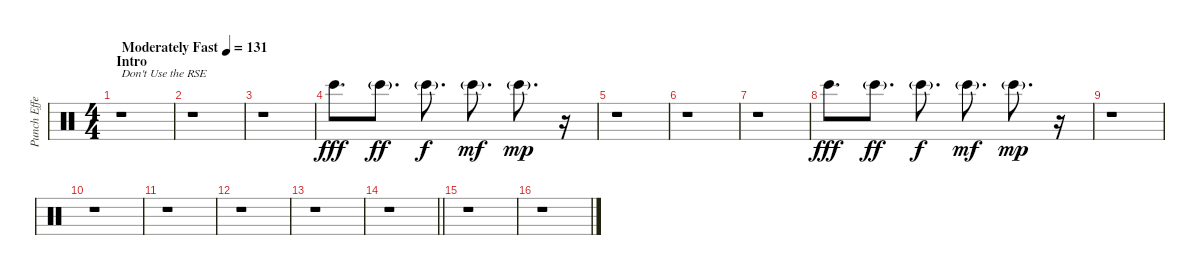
\track ("Punch Effect" "Punch Effe") {instrument percussion}
\staff {score}
\articulation defaults
\ts (4 4)
\section ("" "Intro")
\tempo (131 "Moderately Fast")
\clef neutral
\ks c
r.1{txt "Don't Use the RSE" dy fff} |
r.1 |
r.1 |
"Bongo High (hit)".8{d} "Bongo High (hit)"{g}.8{d dy ff} "Bongo High (hit)"{g}.8{d dy f} "Bongo High (hit)"{g}.8{d dy mf} "Bongo High (hit)"{g}.8{d dy mp} r.16 |
r.1 |
r.1 |
r.1 |
"Bongo High (hit)".8{d dy fff} "Bongo High (hit)"{g}.8{d dy ff} "Bongo High (hit)"{g}.8{d dy f} "Bongo High (hit)"{g}.8{d dy mf} "Bongo High (hit)"{g}.8{d dy mp} r.16 |
r.1 |
r.1 |
r.1 |
r.1 |
r.1 |
\barLineRight lightlight
r.1 |
\section ("" "")
r.1 |
r.1
